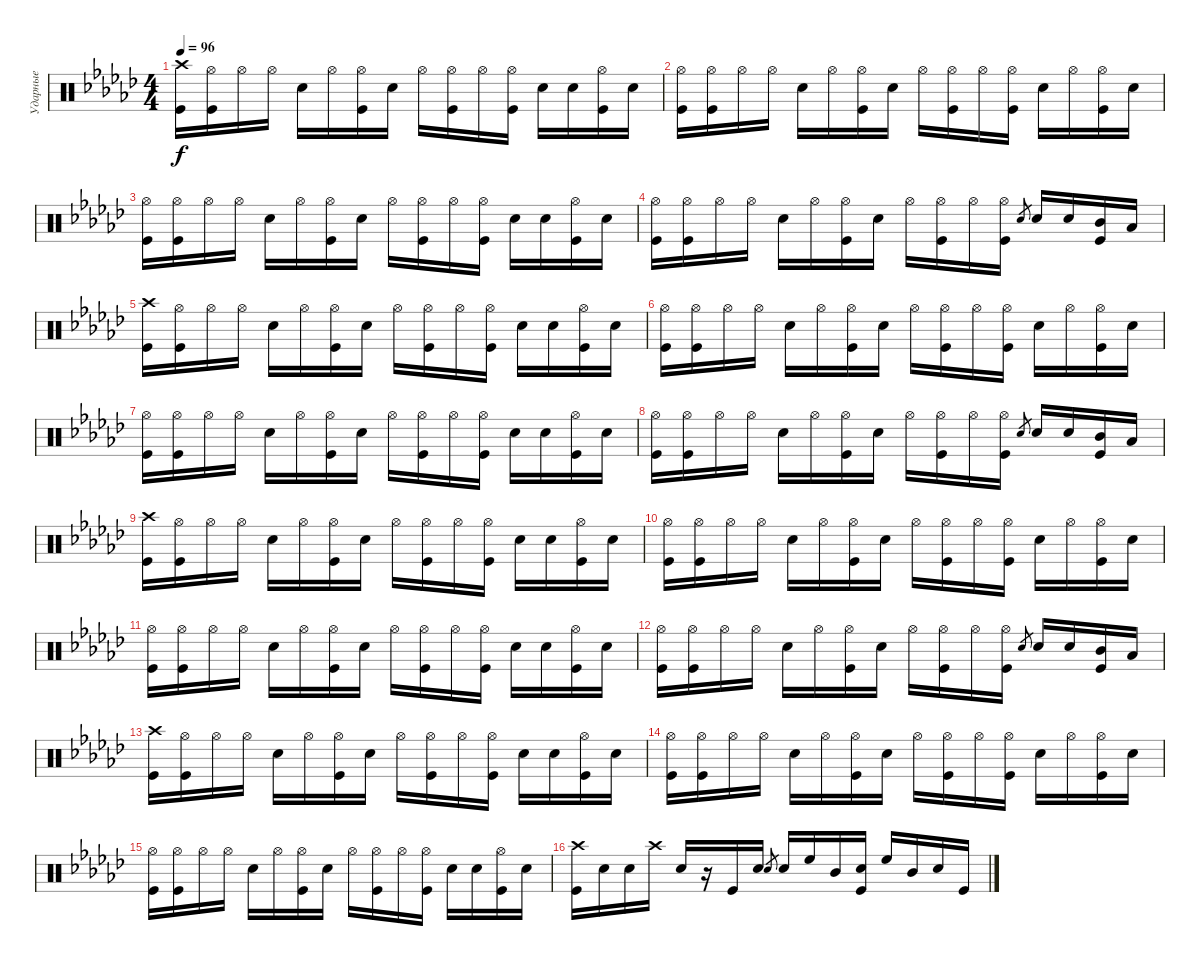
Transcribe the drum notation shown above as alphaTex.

\track ("Ударные" "Ударные") {instrument percussion}
\staff {score}
\articulation defaults
\ts (4 4)
\tempo 96
\clef neutral
\ks ebminor
("Crash high (hit)" "Kick (hit)").16{dy f} ("Hi-Hat (open)" "Kick (hit)").16 "Hi-Hat (open)".16 "Hi-Hat (open)".16 "Snare (hit) 2".16 "Hi-Hat (open)".16 ("Kick (hit)" "Hi-Hat (open)").16 "Snare (hit) 2".16 "Hi-Hat (open)".16 ("Hi-Hat (open)" "Kick (hit)").16 "Hi-Hat (open)".16 ("Hi-Hat (open)" "Kick (hit)").16 "Snare (hit) 2".16 "Snare (hit) 2".16 ("Kick (hit)" "Hi-Hat (open)").16 "Snare (hit) 2".16 |
("Hi-Hat (open)" "Kick (hit)").16 ("Hi-Hat (open)" "Kick (hit)").16 "Hi-Hat (open)".16 "Hi-Hat (open)".16 "Snare (hit) 2".16 "Hi-Hat (open)".16 ("Kick (hit)" "Hi-Hat (open)").16 "Snare (hit) 2".16 "Hi-Hat (open)".16 ("Hi-Hat (open)" "Kick (hit)").16 "Hi-Hat (open)".16 ("Hi-Hat (open)" "Kick (hit)").16 "Snare (hit) 2".16 "Hi-Hat (open)".16 ("Kick (hit)" "Hi-Hat (open)").16 "Snare (hit) 2".16 |
("Hi-Hat (open)" "Kick (hit)").16 ("Hi-Hat (open)" "Kick (hit)").16 "Hi-Hat (open)".16 "Hi-Hat (open)".16 "Snare (hit) 2".16 "Hi-Hat (open)".16 ("Kick (hit)" "Hi-Hat (open)").16 "Snare (hit) 2".16 "Hi-Hat (open)".16 ("Hi-Hat (open)" "Kick (hit)").16 "Hi-Hat (open)".16 ("Hi-Hat (open)" "Kick (hit)").16 "Snare (hit) 2".16 "Snare (hit) 2".16 ("Kick (hit)" "Hi-Hat (open)").16 "Snare (hit) 2".16 |
("Hi-Hat (open)" "Kick (hit)").16 ("Hi-Hat (open)" "Kick (hit)").16 "Hi-Hat (open)".16 "Hi-Hat (open)".16 "Snare (hit) 2".16 "Hi-Hat (open)".16 ("Kick (hit)" "Hi-Hat (open)").16 "Snare (hit) 2".16 "Hi-Hat (open)".16 ("Hi-Hat (open)" "Kick (hit)").16 "Hi-Hat (open)".16 ("Hi-Hat (open)" "Kick (hit)").16 "Snare (hit) 2".8{gr} "Snare (hit) 2".16 "Snare (hit) 2".16 ("Kick (hit)" "Mid Tom (hit)").16 "Low Tom (hit)".16 |
("Crash high (hit)" "Kick (hit)").16 ("Hi-Hat (open)" "Kick (hit)").16 "Hi-Hat (open)".16 "Hi-Hat (open)".16 "Snare (hit) 2".16 "Hi-Hat (open)".16 ("Kick (hit)" "Hi-Hat (open)").16 "Snare (hit) 2".16 "Hi-Hat (open)".16 ("Hi-Hat (open)" "Kick (hit)").16 "Hi-Hat (open)".16 ("Hi-Hat (open)" "Kick (hit)").16 "Snare (hit) 2".16 "Snare (hit) 2".16 ("Kick (hit)" "Hi-Hat (open)").16 "Snare (hit) 2".16 |
("Hi-Hat (open)" "Kick (hit)").16 ("Hi-Hat (open)" "Kick (hit)").16 "Hi-Hat (open)".16 "Hi-Hat (open)".16 "Snare (hit) 2".16 "Hi-Hat (open)".16 ("Kick (hit)" "Hi-Hat (open)").16 "Snare (hit) 2".16 "Hi-Hat (open)".16 ("Hi-Hat (open)" "Kick (hit)").16 "Hi-Hat (open)".16 ("Hi-Hat (open)" "Kick (hit)").16 "Snare (hit) 2".16 "Hi-Hat (open)".16 ("Kick (hit)" "Hi-Hat (open)").16 "Snare (hit) 2".16 |
("Hi-Hat (open)" "Kick (hit)").16 ("Hi-Hat (open)" "Kick (hit)").16 "Hi-Hat (open)".16 "Hi-Hat (open)".16 "Snare (hit) 2".16 "Hi-Hat (open)".16 ("Kick (hit)" "Hi-Hat (open)").16 "Snare (hit) 2".16 "Hi-Hat (open)".16 ("Hi-Hat (open)" "Kick (hit)").16 "Hi-Hat (open)".16 ("Hi-Hat (open)" "Kick (hit)").16 "Snare (hit) 2".16 "Snare (hit) 2".16 ("Kick (hit)" "Hi-Hat (open)").16 "Snare (hit) 2".16 |
("Hi-Hat (open)" "Kick (hit)").16 ("Hi-Hat (open)" "Kick (hit)").16 "Hi-Hat (open)".16 "Hi-Hat (open)".16 "Snare (hit) 2".16 "Hi-Hat (open)".16 ("Kick (hit)" "Hi-Hat (open)").16 "Snare (hit) 2".16 "Hi-Hat (open)".16 ("Hi-Hat (open)" "Kick (hit)").16 "Hi-Hat (open)".16 ("Hi-Hat (open)" "Kick (hit)").16 "Snare (hit) 2".8{gr} "Snare (hit) 2".16 "Snare (hit) 2".16 ("Kick (hit)" "Mid Tom (hit)").16 "Low Tom (hit)".16 |
("Crash high (hit)" "Kick (hit)").16 ("Hi-Hat (open)" "Kick (hit)").16 "Hi-Hat (open)".16 "Hi-Hat (open)".16 "Snare (hit) 2".16 "Hi-Hat (open)".16 ("Kick (hit)" "Hi-Hat (open)").16 "Snare (hit) 2".16 "Hi-Hat (open)".16 ("Hi-Hat (open)" "Kick (hit)").16 "Hi-Hat (open)".16 ("Hi-Hat (open)" "Kick (hit)").16 "Snare (hit) 2".16 "Snare (hit) 2".16 ("Kick (hit)" "Hi-Hat (open)").16 "Snare (hit) 2".16 |
("Hi-Hat (open)" "Kick (hit)").16 ("Hi-Hat (open)" "Kick (hit)").16 "Hi-Hat (open)".16 "Hi-Hat (open)".16 "Snare (hit) 2".16 "Hi-Hat (open)".16 ("Kick (hit)" "Hi-Hat (open)").16 "Snare (hit) 2".16 "Hi-Hat (open)".16 ("Hi-Hat (open)" "Kick (hit)").16 "Hi-Hat (open)".16 ("Hi-Hat (open)" "Kick (hit)").16 "Snare (hit) 2".16 "Hi-Hat (open)".16 ("Kick (hit)" "Hi-Hat (open)").16 "Snare (hit) 2".16 |
("Hi-Hat (open)" "Kick (hit)").16 ("Hi-Hat (open)" "Kick (hit)").16 "Hi-Hat (open)".16 "Hi-Hat (open)".16 "Snare (hit) 2".16 "Hi-Hat (open)".16 ("Kick (hit)" "Hi-Hat (open)").16 "Snare (hit) 2".16 "Hi-Hat (open)".16 ("Hi-Hat (open)" "Kick (hit)").16 "Hi-Hat (open)".16 ("Hi-Hat (open)" "Kick (hit)").16 "Snare (hit) 2".16 "Snare (hit) 2".16 ("Kick (hit)" "Hi-Hat (open)").16 "Snare (hit) 2".16 |
("Hi-Hat (open)" "Kick (hit)").16 ("Hi-Hat (open)" "Kick (hit)").16 "Hi-Hat (open)".16 "Hi-Hat (open)".16 "Snare (hit) 2".16 "Hi-Hat (open)".16 ("Kick (hit)" "Hi-Hat (open)").16 "Snare (hit) 2".16 "Hi-Hat (open)".16 ("Hi-Hat (open)" "Kick (hit)").16 "Hi-Hat (open)".16 ("Hi-Hat (open)" "Kick (hit)").16 "Snare (hit) 2".8{gr} "Snare (hit) 2".16 "Snare (hit) 2".16 ("Kick (hit)" "Mid Tom (hit)").16 "Low Tom (hit)".16 |
("Crash high (hit)" "Kick (hit)").16 ("Hi-Hat (open)" "Kick (hit)").16 "Hi-Hat (open)".16 "Hi-Hat (open)".16 "Snare (hit) 2".16 "Hi-Hat (open)".16 ("Kick (hit)" "Hi-Hat (open)").16 "Snare (hit) 2".16 "Hi-Hat (open)".16 ("Hi-Hat (open)" "Kick (hit)").16 "Hi-Hat (open)".16 ("Hi-Hat (open)" "Kick (hit)").16 "Snare (hit) 2".16 "Snare (hit) 2".16 ("Kick (hit)" "Hi-Hat (open)").16 "Snare (hit) 2".16 |
("Hi-Hat (open)" "Kick (hit)").16 ("Hi-Hat (open)" "Kick (hit)").16 "Hi-Hat (open)".16 "Hi-Hat (open)".16 "Snare (hit) 2".16 "Hi-Hat (open)".16 ("Kick (hit)" "Hi-Hat (open)").16 "Snare (hit) 2".16 "Hi-Hat (open)".16 ("Hi-Hat (open)" "Kick (hit)").16 "Hi-Hat (open)".16 ("Hi-Hat (open)" "Kick (hit)").16 "Snare (hit) 2".16 "Hi-Hat (open)".16 ("Kick (hit)" "Hi-Hat (open)").16 "Snare (hit) 2".16 |
("Hi-Hat (open)" "Kick (hit)").16 ("Hi-Hat (open)" "Kick (hit)").16 "Hi-Hat (open)".16 "Hi-Hat (open)".16 "Snare (hit) 2".16 "Hi-Hat (open)".16 ("Kick (hit)" "Hi-Hat (open)").16 "Snare (hit) 2".16 "Hi-Hat (open)".16 ("Hi-Hat (open)" "Kick (hit)").16 "Hi-Hat (open)".16 ("Hi-Hat (open)" "Kick (hit)").16 "Snare (hit) 2".16 "Snare (hit) 2".16 ("Kick (hit)" "Hi-Hat (open)").16 "Snare (hit) 2".16 |
("Crash high (hit)" "Kick (hit)").16 "Snare (hit) 2".16 "Snare (hit) 2".16 "Crash high (hit)".16 "Snare (hit) 2".16 r.16 "Kick (hit)".16 "Snare (hit) 2".16 "Snare (hit) 2".8{gr} "Snare (hit) 2".16 "High Floor Tom (hit)".16 "Mid Tom (hit)".16 ("Snare (hit) 2" "Kick (hit)").16 "High Floor Tom (hit)".16 "Mid Tom (hit)".16 "Snare (hit) 2".16 "Kick (hit)".16
